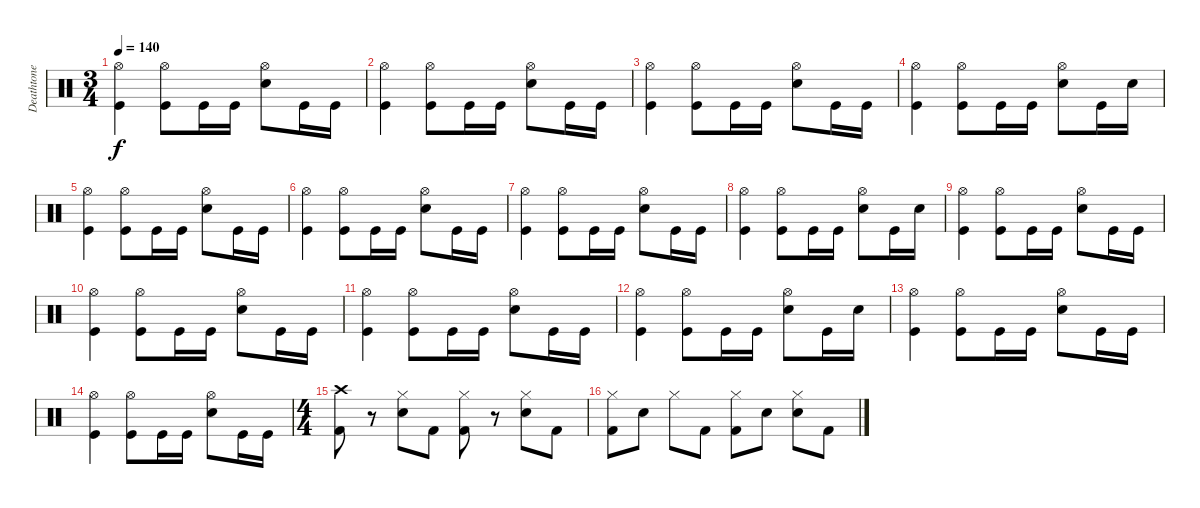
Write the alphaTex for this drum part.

\track ("Deathtone" "Deathtone") {instrument percussion}
\staff {score}
\articulation defaults
\ts (3 4)
\tempo 140
\clef neutral
\ks c
("Hi-Hat (open)" "Kick (hit)").4{dy f} ("Hi-Hat (open)" "Kick (hit)").8 "Kick (hit)".16 "Kick (hit)".16 ("Hi-Hat (open)" "Snare (hit) 2").8 "Kick (hit)".16 "Kick (hit)".16 |
("Hi-Hat (open)" "Kick (hit)").4 ("Hi-Hat (open)" "Kick (hit)").8 "Kick (hit)".16 "Kick (hit)".16 ("Hi-Hat (open)" "Snare (hit) 2").8 "Kick (hit)".16 "Kick (hit)".16 |
("Hi-Hat (open)" "Kick (hit)").4 ("Hi-Hat (open)" "Kick (hit)").8 "Kick (hit)".16 "Kick (hit)".16 ("Hi-Hat (open)" "Snare (hit) 2").8 "Kick (hit)".16 "Kick (hit)".16 |
("Hi-Hat (open)" "Kick (hit)").4 ("Hi-Hat (open)" "Kick (hit)").8 "Kick (hit)".16 "Kick (hit)".16 ("Hi-Hat (open)" "Snare (hit) 2").8 "Kick (hit)".16 "Snare (hit) 2".16 |
("Hi-Hat (open)" "Kick (hit)").4 ("Hi-Hat (open)" "Kick (hit)").8 "Kick (hit)".16 "Kick (hit)".16 ("Hi-Hat (open)" "Snare (hit) 2").8 "Kick (hit)".16 "Kick (hit)".16 |
("Hi-Hat (open)" "Kick (hit)").4 ("Hi-Hat (open)" "Kick (hit)").8 "Kick (hit)".16 "Kick (hit)".16 ("Hi-Hat (open)" "Snare (hit) 2").8 "Kick (hit)".16 "Kick (hit)".16 |
("Hi-Hat (open)" "Kick (hit)").4 ("Hi-Hat (open)" "Kick (hit)").8 "Kick (hit)".16 "Kick (hit)".16 ("Hi-Hat (open)" "Snare (hit) 2").8 "Kick (hit)".16 "Kick (hit)".16 |
("Hi-Hat (open)" "Kick (hit)").4 ("Hi-Hat (open)" "Kick (hit)").8 "Kick (hit)".16 "Kick (hit)".16 ("Hi-Hat (open)" "Snare (hit) 2").8 "Kick (hit)".16 "Snare (hit) 2".16 |
("Hi-Hat (open)" "Kick (hit)").4 ("Hi-Hat (open)" "Kick (hit)").8 "Kick (hit)".16 "Kick (hit)".16 ("Hi-Hat (open)" "Snare (hit) 2").8 "Kick (hit)".16 "Kick (hit)".16 |
("Hi-Hat (open)" "Kick (hit)").4 ("Hi-Hat (open)" "Kick (hit)").8 "Kick (hit)".16 "Kick (hit)".16 ("Hi-Hat (open)" "Snare (hit) 2").8 "Kick (hit)".16 "Kick (hit)".16 |
("Hi-Hat (open)" "Kick (hit)").4 ("Hi-Hat (open)" "Kick (hit)").8 "Kick (hit)".16 "Kick (hit)".16 ("Hi-Hat (open)" "Snare (hit) 2").8 "Kick (hit)".16 "Kick (hit)".16 |
("Hi-Hat (open)" "Kick (hit)").4 ("Hi-Hat (open)" "Kick (hit)").8 "Kick (hit)".16 "Kick (hit)".16 ("Hi-Hat (open)" "Snare (hit) 2").8 "Kick (hit)".16 "Snare (hit) 2".16 |
("Hi-Hat (open)" "Kick (hit)").4 ("Hi-Hat (open)" "Kick (hit)").8 "Kick (hit)".16 "Kick (hit)".16 ("Hi-Hat (open)" "Snare (hit) 2").8 "Kick (hit)".16 "Kick (hit)".16 |
("Hi-Hat (open)" "Kick (hit)").4 ("Hi-Hat (open)" "Kick (hit)").8 "Kick (hit)".16 "Kick (hit)".16 ("Hi-Hat (open)" "Snare (hit) 2").8 "Kick (hit)".16 "Kick (hit)".16 |
\ts (4 4)
("Crash high (hit)" "Kick (hit) 2").8 r.8 ("Hi-Hat (closed)" "Snare (hit) 2").8 "Kick (hit) 2".8 ("Hi-Hat (closed)" "Kick (hit) 2").8 r.8 ("Hi-Hat (closed)" "Snare (hit) 2").8 "Kick (hit) 2".8 |
("Hi-Hat (closed)" "Kick (hit) 2").8 "Snare (hit) 2".8 "Hi-Hat (closed)".8 "Kick (hit) 2".8 ("Hi-Hat (closed)" "Kick (hit) 2").8 "Snare (hit) 2".8 ("Hi-Hat (closed)" "Snare (hit) 2").8 "Kick (hit) 2".8
